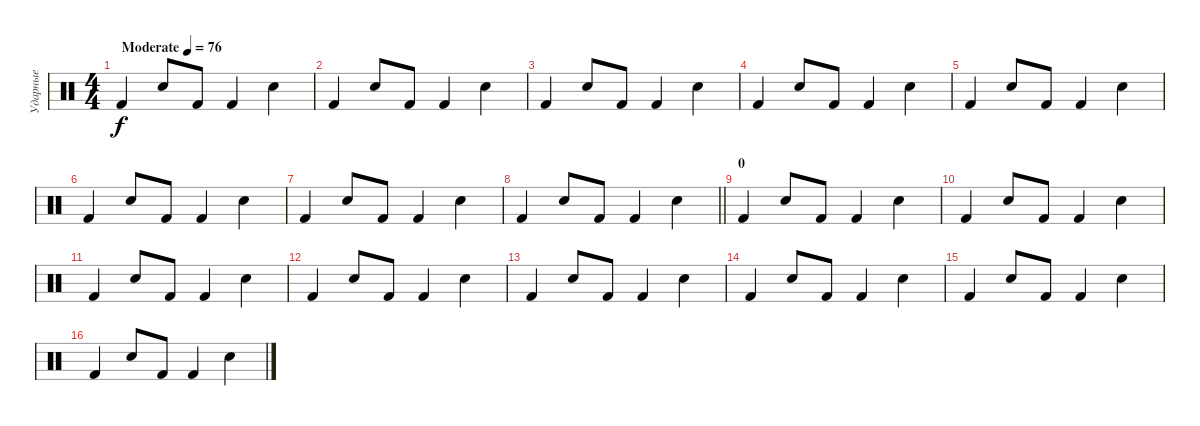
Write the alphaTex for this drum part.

\track ("Ударные" "Ударные") {instrument percussion}
\staff {score}
\articulation defaults
\ts (4 4)
\tempo (76 "Moderate")
\clef neutral
\ks c "Kick (hit) 2".4{dy f} "Snare (hit) 2".8 "Kick (hit) 2".8 "Kick (hit) 2".4 "Snare (hit) 2".4
|
"Kick (hit) 2".4 "Snare (hit) 2".8 "Kick (hit) 2".8 "Kick (hit) 2".4 "Snare (hit) 2".4 |
"Kick (hit) 2".4 "Snare (hit) 2".8 "Kick (hit) 2".8 "Kick (hit) 2".4 "Snare (hit) 2".4 |
"Kick (hit) 2".4 "Snare (hit) 2".8 "Kick (hit) 2".8 "Kick (hit) 2".4 "Snare (hit) 2".4 |
"Kick (hit) 2".4 "Snare (hit) 2".8 "Kick (hit) 2".8 "Kick (hit) 2".4 "Snare (hit) 2".4 |
"Kick (hit) 2".4 "Snare (hit) 2".8 "Kick (hit) 2".8 "Kick (hit) 2".4 "Snare (hit) 2".4 |
"Kick (hit) 2".4 "Snare (hit) 2".8 "Kick (hit) 2".8 "Kick (hit) 2".4 "Snare (hit) 2".4 |
\barLineRight lightlight "Kick (hit) 2".4 "Snare (hit) 2".8 "Kick (hit) 2".8 "Kick (hit) 2".4 "Snare (hit) 2".4
|
\section ("" "0")
"Kick (hit) 2".4 "Snare (hit) 2".8 "Kick (hit) 2".8 "Kick (hit) 2".4 "Snare (hit) 2".4 |
"Kick (hit) 2".4 "Snare (hit) 2".8 "Kick (hit) 2".8 "Kick (hit) 2".4 "Snare (hit) 2".4 |
"Kick (hit) 2".4 "Snare (hit) 2".8 "Kick (hit) 2".8 "Kick (hit) 2".4 "Snare (hit) 2".4 |
"Kick (hit) 2".4 "Snare (hit) 2".8 "Kick (hit) 2".8 "Kick (hit) 2".4 "Snare (hit) 2".4 |
"Kick (hit) 2".4 "Snare (hit) 2".8 "Kick (hit) 2".8 "Kick (hit) 2".4 "Snare (hit) 2".4 |
"Kick (hit) 2".4 "Snare (hit) 2".8 "Kick (hit) 2".8 "Kick (hit) 2".4 "Snare (hit) 2".4 |
"Kick (hit) 2".4 "Snare (hit) 2".8 "Kick (hit) 2".8 "Kick (hit) 2".4 "Snare (hit) 2".4 |
"Kick (hit) 2".4 "Snare (hit) 2".8 "Kick (hit) 2".8 "Kick (hit) 2".4 "Snare (hit) 2".4
